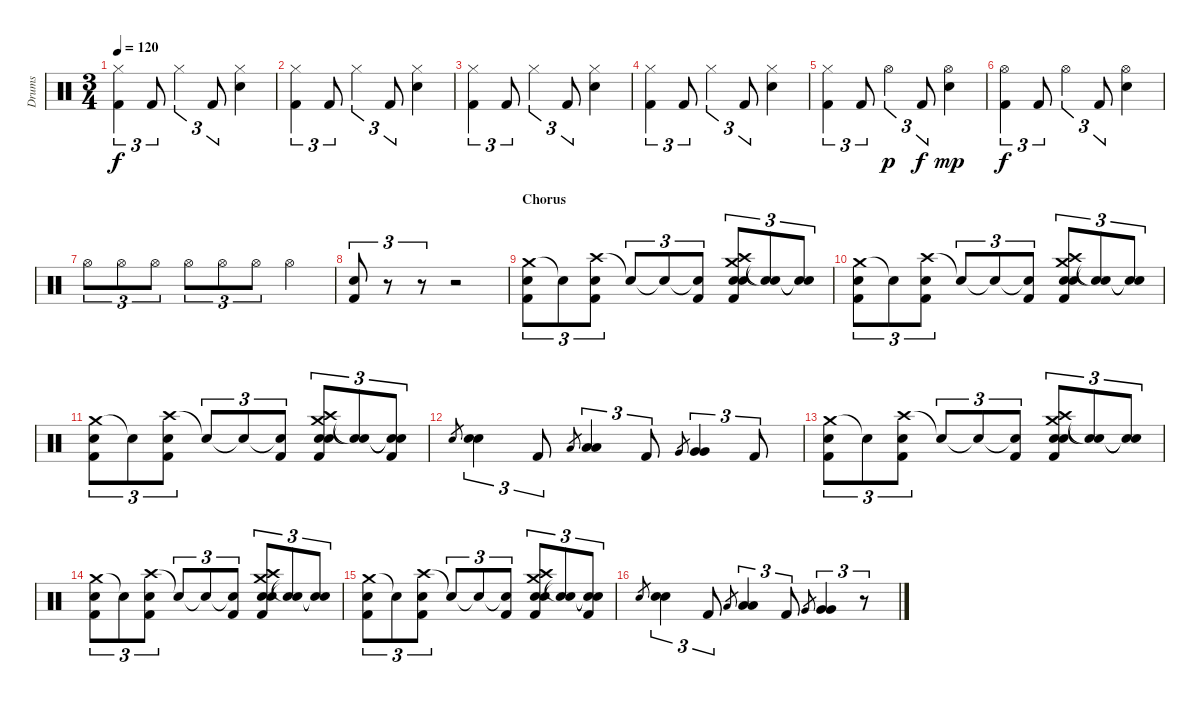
\track ("Drums" "Drums") {instrument percussion}
\staff {score}
\articulation defaults
\ts (3 4)
\tempo 120
\clef neutral
\ks c
("Hi-Hat (closed)" "Kick (hit) 2").4{tu (3 2) dy f} "Kick (hit) 2".8{tu (3 2)} "Hi-Hat (closed)".4{tu (3 2)} "Kick (hit) 2".8{tu (3 2)} ("Hi-Hat (closed)" "Snare (hit) 2").4 |
("Hi-Hat (closed)" "Kick (hit) 2").4{tu (3 2)} "Kick (hit) 2".8{tu (3 2)} "Hi-Hat (closed)".4{tu (3 2)} "Kick (hit) 2".8{tu (3 2)} ("Hi-Hat (closed)" "Snare (hit) 2").4 |
("Hi-Hat (closed)" "Kick (hit) 2").4{tu (3 2)} "Kick (hit) 2".8{tu (3 2)} "Hi-Hat (closed)".4{tu (3 2)} "Kick (hit) 2".8{tu (3 2)} ("Hi-Hat (closed)" "Snare (hit) 2").4 |
("Hi-Hat (closed)" "Kick (hit) 2").4{tu (3 2)} "Kick (hit) 2".8{tu (3 2)} "Hi-Hat (closed)".4{tu (3 2)} "Kick (hit) 2".8{tu (3 2)} ("Hi-Hat (closed)" "Snare (hit) 2").4 |
("Hi-Hat (closed)" "Kick (hit) 2").4{tu (3 2)} "Kick (hit) 2".8{tu (3 2)} "Hi-Hat (open)".4{tu (3 2) dy p} "Kick (hit) 2".8{tu (3 2) dy f} ("Hi-Hat (open)" "Snare (hit) 2").4{dy mp} |
("Hi-Hat (open)" "Kick (hit) 2").4{tu (3 2) dy f} "Kick (hit) 2".8{tu (3 2)} "Hi-Hat (open)".4{tu (3 2)} "Kick (hit) 2".8{tu (3 2)} ("Hi-Hat (open)" "Snare (hit) 2").4 |
"Hi-Hat (open)".8{tu (3 2)} "Hi-Hat (open)".8{tu (3 2)} "Hi-Hat (open)".8{tu (3 2)} "Hi-Hat (open)".8{tu (3 2)} "Hi-Hat (open)".8{tu (3 2)} "Hi-Hat (open)".8{tu (3 2)} "Hi-Hat (open)".4 |
("Snare (hit) 2" "Kick (hit) 2").8{tu (3 2)} r.8{tu (3 2)} r.8{tu (3 2)} r.2 |
\section ("" "Chorus")
("Crash medium (hit)" "Snare (hit) 2" "Kick (hit) 2").8{tu (3 2)} "Snare (hit)"{t}.8{tu (3 2)} ("Crash high (hit)" "Snare (hit) 2" "Kick (hit) 2").8{tu (3 2)} "Snare (hit)"{t}.8{tu (3 2)} "Snare (hit)"{t}.8{tu (3 2)} ("Snare (hit)"{t} "Kick (hit) 2").8{tu (3 2)} ("Crash medium (hit)" "Crash high (hit)" "Snare (hit) 2" "Electric Snare (hit)" "Kick (hit) 2").8{tu (3 2)} ("Snare (hit)"{t} "Snare (hit)"{t}).8{tu (3 2)} ("Snare (hit)"{t} "Snare (hit)"{t}).8{tu (3 2)} |
("Crash medium (hit)" "Snare (hit) 2" "Kick (hit) 2").8{tu (3 2)} "Snare (hit)"{t}.8{tu (3 2)} ("Crash high (hit)" "Snare (hit) 2" "Kick (hit) 2").8{tu (3 2)} "Snare (hit)"{t}.8{tu (3 2)} "Snare (hit)"{t}.8{tu (3 2)} ("Snare (hit)"{t} "Kick (hit) 2").8{tu (3 2)} ("Crash medium (hit)" "Crash high (hit)" "Snare (hit) 2" "Electric Snare (hit)" "Kick (hit) 2").8{tu (3 2)} ("Snare (hit)"{t} "Snare (hit)"{t}).8{tu (3 2)} ("Snare (hit)"{t} "Snare (hit)"{t}).8{tu (3 2)} |
("Crash medium (hit)" "Snare (hit) 2" "Kick (hit) 2").8{tu (3 2)} "Snare (hit)"{t}.8{tu (3 2)} ("Crash high (hit)" "Snare (hit) 2" "Kick (hit) 2").8{tu (3 2)} "Snare (hit)"{t}.8{tu (3 2)} "Snare (hit)"{t}.8{tu (3 2)} ("Snare (hit)"{t} "Kick (hit) 2").8{tu (3 2)} ("Crash medium (hit)" "Crash high (hit)" "Snare (hit) 2" "Electric Snare (hit)" "Kick (hit) 2").8{tu (3 2)} ("Snare (hit)"{t} "Snare (hit)"{t}).8{tu (3 2)} ("Snare (hit)"{t} "Snare (hit)"{t} "Kick (hit) 2").8{tu (3 2)} |
"Electric Snare (hit)".8{gr} ("Electric Snare (hit)" "Electric Snare (hit)").4{tu (3 2)} "Kick (hit) 2".8{tu (3 2)} "Low Tom (hit)".8{gr} ("Low Tom (hit)" "Low Tom (hit)").4{tu (3 2)} "Kick (hit) 2".8{tu (3 2)} "Very Low Tom (hit)".8{gr} ("Very Low Tom (hit)" "Very Low Tom (hit)").4{tu (3 2)} "Kick (hit) 2".8{tu (3 2)} |
("Crash medium (hit)" "Snare (hit) 2" "Kick (hit) 2").8{tu (3 2)} "Snare (hit)"{t}.8{tu (3 2)} ("Crash high (hit)" "Snare (hit) 2" "Kick (hit) 2").8{tu (3 2)} "Snare (hit)"{t}.8{tu (3 2)} "Snare (hit)"{t}.8{tu (3 2)} ("Snare (hit)"{t} "Kick (hit) 2").8{tu (3 2)} ("Crash medium (hit)" "Crash high (hit)" "Snare (hit) 2" "Electric Snare (hit)" "Kick (hit) 2").8{tu (3 2)} ("Snare (hit)"{t} "Snare (hit)"{t}).8{tu (3 2)} ("Snare (hit)"{t} "Snare (hit)"{t}).8{tu (3 2)} |
("Crash medium (hit)" "Snare (hit) 2" "Kick (hit) 2").8{tu (3 2)} "Snare (hit)"{t}.8{tu (3 2)} ("Crash high (hit)" "Snare (hit) 2" "Kick (hit) 2").8{tu (3 2)} "Snare (hit)"{t}.8{tu (3 2)} "Snare (hit)"{t}.8{tu (3 2)} ("Snare (hit)"{t} "Kick (hit) 2").8{tu (3 2)} ("Crash medium (hit)" "Crash high (hit)" "Snare (hit) 2" "Electric Snare (hit)" "Kick (hit) 2").8{tu (3 2)} ("Snare (hit)"{t} "Snare (hit)"{t}).8{tu (3 2)} ("Snare (hit)"{t} "Snare (hit)"{t}).8{tu (3 2)} |
("Crash medium (hit)" "Snare (hit) 2" "Kick (hit) 2").8{tu (3 2)} "Snare (hit)"{t}.8{tu (3 2)} ("Crash high (hit)" "Snare (hit) 2" "Kick (hit) 2").8{tu (3 2)} "Snare (hit)"{t}.8{tu (3 2)} "Snare (hit)"{t}.8{tu (3 2)} ("Snare (hit)"{t} "Kick (hit) 2").8{tu (3 2)} ("Crash medium (hit)" "Crash high (hit)" "Snare (hit) 2" "Electric Snare (hit)" "Kick (hit) 2").8{tu (3 2)} ("Snare (hit)"{t} "Snare (hit)"{t}).8{tu (3 2)} ("Snare (hit)"{t} "Snare (hit)"{t} "Kick (hit) 2").8{tu (3 2)} |
"Electric Snare (hit)".8{gr} ("Electric Snare (hit)" "Electric Snare (hit)").4{tu (3 2)} "Kick (hit) 2".8{tu (3 2)} "Low Tom (hit)".8{gr} ("Low Tom (hit)" "Low Tom (hit)").4{tu (3 2)} "Kick (hit) 2".8{tu (3 2)} "Very Low Tom (hit)".8{gr} ("Very Low Tom (hit)" "Very Low Tom (hit)").4{tu (3 2)} r.8{tu (3 2)}
